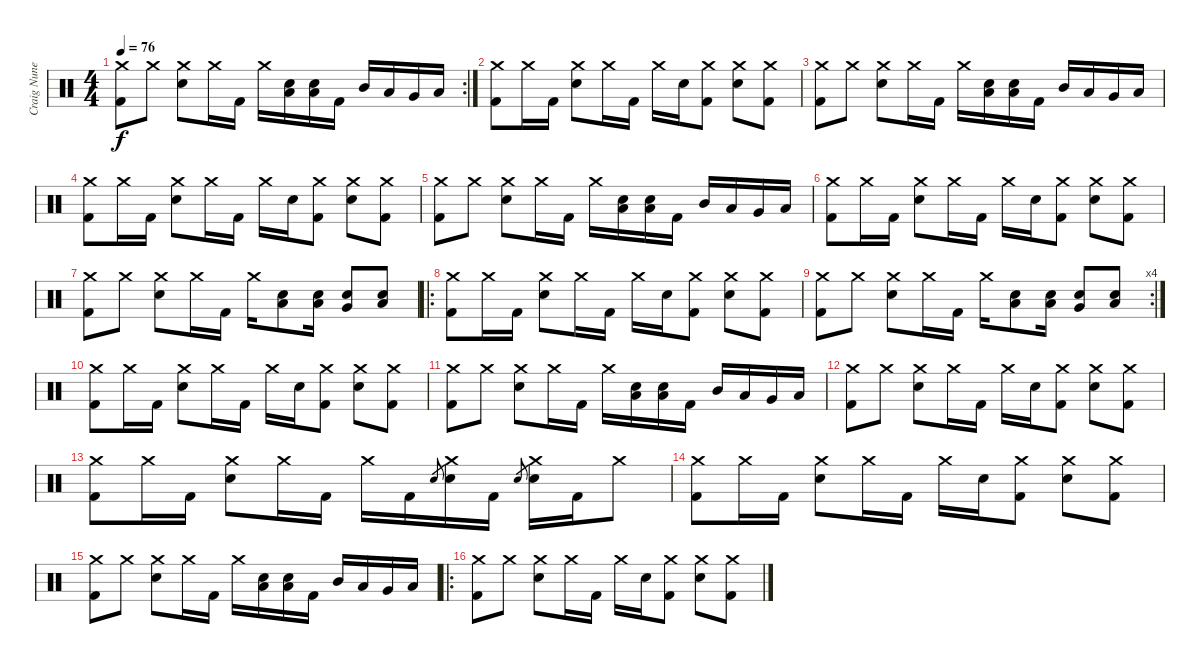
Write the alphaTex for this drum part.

\track ("Craig Nunenmacher" "Craig Nune") {instrument percussion}
\staff {score}
\articulation defaults
\rc 2
\ts (4 4)
\tempo 76
\clef neutral
\ks c
("Crash medium (hit)" "Kick (hit) 2").8{dy f} "Crash medium (hit)".8 ("Crash medium (hit)" "Snare (hit) 2").8 "Crash medium (hit)".16 "Kick (hit) 2".16 "Crash medium (hit)".16 ("Snare (hit) 2" "Low Tom (hit)").16 ("Snare (hit) 2" "Low Tom (hit)").16 "Kick (hit) 2".16 "Mid Tom (hit)".16 "Low Tom (hit)".16 "Very Low Tom (hit)".16 "Low Floor Tom (hit)".16 |
("Crash medium (hit)" "Kick (hit) 2").8 "Crash medium (hit)".16 "Kick (hit) 2".16 ("Crash medium (hit)" "Snare (hit) 2").8 "Crash medium (hit)".16 "Kick (hit) 2".16 "Crash medium (hit)".16 "Snare (hit) 2".16 ("Crash medium (hit)" "Kick (hit) 2").8 ("Crash medium (hit)" "Snare (hit) 2").8 ("Crash medium (hit)" "Kick (hit) 2").8 |
("Crash medium (hit)" "Kick (hit) 2").8 "Crash medium (hit)".8 ("Crash medium (hit)" "Snare (hit) 2").8 "Crash medium (hit)".16 "Kick (hit) 2".16 "Crash medium (hit)".16 ("Snare (hit) 2" "Low Tom (hit)").16 ("Snare (hit) 2" "Low Tom (hit)").16 "Kick (hit) 2".16 "Mid Tom (hit)".16 "Low Tom (hit)".16 "Very Low Tom (hit)".16 "Low Floor Tom (hit)".16 |
("Crash medium (hit)" "Kick (hit) 2").8 "Crash medium (hit)".16 "Kick (hit) 2".16 ("Crash medium (hit)" "Snare (hit) 2").8 "Crash medium (hit)".16 "Kick (hit) 2".16 "Crash medium (hit)".16 "Snare (hit) 2".16 ("Crash medium (hit)" "Kick (hit) 2").8 ("Crash medium (hit)" "Snare (hit) 2").8 ("Crash medium (hit)" "Kick (hit) 2").8 |
("Crash medium (hit)" "Kick (hit) 2").8 "Crash medium (hit)".8 ("Crash medium (hit)" "Snare (hit) 2").8 "Crash medium (hit)".16 "Kick (hit) 2".16 "Crash medium (hit)".16 ("Snare (hit) 2" "Low Tom (hit)").16 ("Snare (hit) 2" "Low Tom (hit)").16 "Kick (hit) 2".16 "Mid Tom (hit)".16 "Low Tom (hit)".16 "Very Low Tom (hit)".16 "Low Floor Tom (hit)".16 |
("Crash medium (hit)" "Kick (hit) 2").8 "Crash medium (hit)".16 "Kick (hit) 2".16 ("Crash medium (hit)" "Snare (hit) 2").8 "Crash medium (hit)".16 "Kick (hit) 2".16 "Crash medium (hit)".16 "Snare (hit) 2".16 ("Crash medium (hit)" "Kick (hit) 2").8 ("Crash medium (hit)" "Snare (hit) 2").8 ("Crash medium (hit)" "Kick (hit) 2").8 |
("Crash medium (hit)" "Kick (hit) 2").8 "Crash medium (hit)".8 ("Crash medium (hit)" "Snare (hit) 2").8 "Crash medium (hit)".16 "Kick (hit) 2".16 "Crash medium (hit)".16 ("Snare (hit) 2" "Low Tom (hit)").8 ("Snare (hit) 2" "Low Tom (hit)").16 ("Snare (hit) 2" "Very Low Tom (hit)").8 ("Snare (hit) 2" "Low Floor Tom (hit)").8 |
\ro
("Crash medium (hit)" "Kick (hit) 2").8 "Crash medium (hit)".16 "Kick (hit) 2".16 ("Crash medium (hit)" "Snare (hit) 2").8 "Crash medium (hit)".16 "Kick (hit) 2".16 "Crash medium (hit)".16 "Snare (hit) 2".16 ("Crash medium (hit)" "Kick (hit) 2").8 ("Crash medium (hit)" "Snare (hit) 2").8 ("Crash medium (hit)" "Kick (hit) 2").8 |
\rc 4
("Crash medium (hit)" "Kick (hit) 2").8 "Crash medium (hit)".8 ("Crash medium (hit)" "Snare (hit) 2").8 "Crash medium (hit)".16 "Kick (hit) 2".16 "Crash medium (hit)".16 ("Snare (hit) 2" "Low Tom (hit)").8 ("Snare (hit) 2" "Low Tom (hit)").16 ("Snare (hit) 2" "Very Low Tom (hit)").8 ("Snare (hit) 2" "Low Floor Tom (hit)").8 |
("Crash medium (hit)" "Kick (hit) 2").8 "Crash medium (hit)".16 "Kick (hit) 2".16 ("Crash medium (hit)" "Snare (hit) 2").8 "Crash medium (hit)".16 "Kick (hit) 2".16 "Crash medium (hit)".16 "Snare (hit) 2".16 ("Crash medium (hit)" "Kick (hit) 2").8 ("Crash medium (hit)" "Snare (hit) 2").8 ("Crash medium (hit)" "Kick (hit) 2").8 |
("Crash medium (hit)" "Kick (hit) 2").8 "Crash medium (hit)".8 ("Crash medium (hit)" "Snare (hit) 2").8 "Crash medium (hit)".16 "Kick (hit) 2".16 "Crash medium (hit)".16 ("Snare (hit) 2" "Low Tom (hit)").16 ("Snare (hit) 2" "Low Tom (hit)").16 "Kick (hit) 2".16 "Mid Tom (hit)".16 "Low Tom (hit)".16 "Very Low Tom (hit)".16 "Low Floor Tom (hit)".16 |
("Crash medium (hit)" "Kick (hit) 2").8 "Crash medium (hit)".8 ("Crash medium (hit)" "Snare (hit) 2").8 "Crash medium (hit)".16 "Kick (hit) 2".16 "Crash medium (hit)".16 "Snare (hit) 2".16 ("Crash medium (hit)" "Kick (hit) 2").8 ("Crash medium (hit)" "Snare (hit) 2").8 ("Crash medium (hit)" "Kick (hit) 2").8 |
("Crash medium (hit)" "Kick (hit) 2").8 "Crash medium (hit)".16 "Kick (hit) 2".16 ("Crash medium (hit)" "Snare (hit) 2").8 "Crash medium (hit)".16 "Kick (hit) 2".16 "Crash medium (hit)".16 "Kick (hit) 2".16 "Snare (hit) 2".8{gr} ("Crash medium (hit)" "Snare (hit) 2").16 "Kick (hit) 2".16 "Snare (hit) 2".8{gr} ("Crash medium (hit)" "Snare (hit) 2").16 "Kick (hit) 2".16 "Crash medium (hit)".8 |
("Crash medium (hit)" "Kick (hit) 2").8 "Crash medium (hit)".16 "Kick (hit) 2".16 ("Crash medium (hit)" "Snare (hit) 2").8 "Crash medium (hit)".16 "Kick (hit) 2".16 "Crash medium (hit)".16 "Snare (hit) 2".16 ("Crash medium (hit)" "Kick (hit) 2").8 ("Crash medium (hit)" "Snare (hit) 2").8 ("Crash medium (hit)" "Kick (hit) 2").8 |
("Crash medium (hit)" "Kick (hit) 2").8 "Crash medium (hit)".8 ("Crash medium (hit)" "Snare (hit) 2").8 "Crash medium (hit)".16 "Kick (hit) 2".16 "Crash medium (hit)".16 ("Snare (hit) 2" "Low Tom (hit)").16 ("Snare (hit) 2" "Low Tom (hit)").16 "Kick (hit) 2".16 "Mid Tom (hit)".16 "Low Tom (hit)".16 "Very Low Tom (hit)".16 "Low Floor Tom (hit)".16 |
\ro
("Crash medium (hit)" "Kick (hit) 2").8 "Crash medium (hit)".8 ("Crash medium (hit)" "Snare (hit) 2").8 "Crash medium (hit)".16 "Kick (hit) 2".16 "Crash medium (hit)".16 "Snare (hit) 2".16 ("Crash medium (hit)" "Kick (hit) 2").8 ("Crash medium (hit)" "Snare (hit) 2").8 ("Crash medium (hit)" "Kick (hit) 2").8
